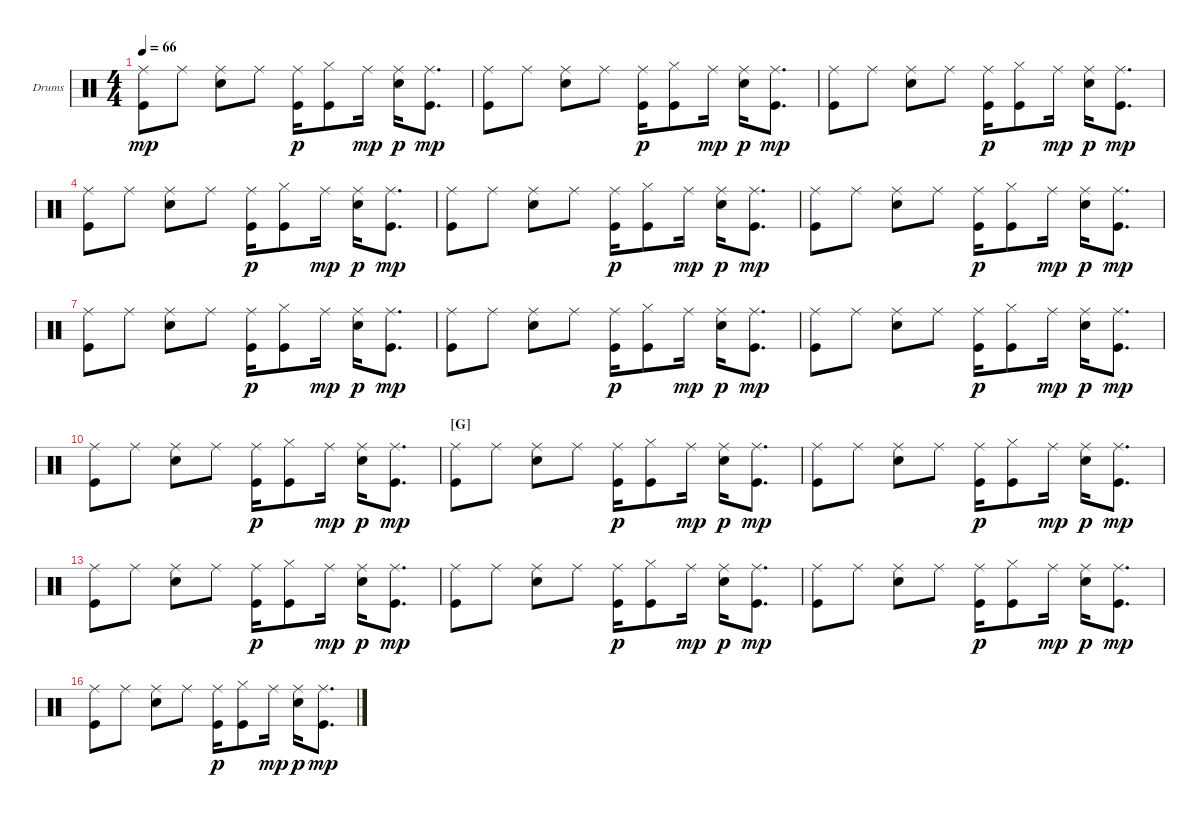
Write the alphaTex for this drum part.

\bracketExtendMode nobrackets
\firstSystemTrackNameOrientation horizontal
\otherSystemsTrackNameOrientation horizontal
\defaultBarNumberDisplay FirstOfSystem
\track ("Drumkit" "Drums") {instrument percussion}
\staff {score}
\articulation defaults
\ts (4 4)
\tempo 66
\clef neutral
\ks c
("Ride (middle)" "Kick (hit)").8{dy mp} "Ride (middle)".8 ("Snare (hit) 2" "Ride (middle)").8 "Ride (middle)".8 ("Ride (middle)" "Kick (hit)").16{dy p} ("Hi-Hat (closed)" "Kick (hit)").8 "Ride (middle)".16{dy mp} ("Ride (middle)" "Snare (hit) 2").16{dy p} ("Ride (middle)" "Kick (hit)").8{d dy mp} |
("Ride (middle)" "Kick (hit)").8 "Ride (middle)".8 ("Snare (hit) 2" "Ride (middle)").8 "Ride (middle)".8 ("Ride (middle)" "Kick (hit)").16{dy p} ("Hi-Hat (closed)" "Kick (hit)").8 "Ride (middle)".16{dy mp} ("Ride (middle)" "Snare (hit) 2").16{dy p} ("Ride (middle)" "Kick (hit)").8{d dy mp} |
("Ride (middle)" "Kick (hit)").8 "Ride (middle)".8 ("Snare (hit) 2" "Ride (middle)").8 "Ride (middle)".8 ("Ride (middle)" "Kick (hit)").16{dy p} ("Hi-Hat (closed)" "Kick (hit)").8 "Ride (middle)".16{dy mp} ("Ride (middle)" "Snare (hit) 2").16{dy p} ("Ride (middle)" "Kick (hit)").8{d dy mp} |
("Ride (middle)" "Kick (hit)").8 "Ride (middle)".8 ("Snare (hit) 2" "Ride (middle)").8 "Ride (middle)".8 ("Ride (middle)" "Kick (hit)").16{dy p} ("Hi-Hat (closed)" "Kick (hit)").8 "Ride (middle)".16{dy mp} ("Ride (middle)" "Snare (hit) 2").16{dy p} ("Ride (middle)" "Kick (hit)").8{d dy mp} |
("Ride (middle)" "Kick (hit)").8 "Ride (middle)".8 ("Snare (hit) 2" "Ride (middle)").8 "Ride (middle)".8 ("Ride (middle)" "Kick (hit)").16{dy p} ("Hi-Hat (closed)" "Kick (hit)").8 "Ride (middle)".16{dy mp} ("Ride (middle)" "Snare (hit) 2").16{dy p} ("Ride (middle)" "Kick (hit)").8{d dy mp} |
("Ride (middle)" "Kick (hit)").8 "Ride (middle)".8 ("Snare (hit) 2" "Ride (middle)").8 "Ride (middle)".8 ("Ride (middle)" "Kick (hit)").16{dy p} ("Hi-Hat (closed)" "Kick (hit)").8 "Ride (middle)".16{dy mp} ("Ride (middle)" "Snare (hit) 2").16{dy p} ("Ride (middle)" "Kick (hit)").8{d dy mp} |
("Ride (middle)" "Kick (hit)").8 "Ride (middle)".8 ("Snare (hit) 2" "Ride (middle)").8 "Ride (middle)".8 ("Ride (middle)" "Kick (hit)").16{dy p} ("Hi-Hat (closed)" "Kick (hit)").8 "Ride (middle)".16{dy mp} ("Ride (middle)" "Snare (hit) 2").16{dy p} ("Ride (middle)" "Kick (hit)").8{d dy mp} |
("Ride (middle)" "Kick (hit)").8 "Ride (middle)".8 ("Snare (hit) 2" "Ride (middle)").8 "Ride (middle)".8 ("Ride (middle)" "Kick (hit)").16{dy p} ("Hi-Hat (closed)" "Kick (hit)").8 "Ride (middle)".16{dy mp} ("Ride (middle)" "Snare (hit) 2").16{dy p} ("Ride (middle)" "Kick (hit)").8{d dy mp} |
("Ride (middle)" "Kick (hit)").8 "Ride (middle)".8 ("Snare (hit) 2" "Ride (middle)").8 "Ride (middle)".8 ("Ride (middle)" "Kick (hit)").16{dy p} ("Hi-Hat (closed)" "Kick (hit)").8 "Ride (middle)".16{dy mp} ("Ride (middle)" "Snare (hit) 2").16{dy p} ("Ride (middle)" "Kick (hit)").8{d dy mp} |
("Ride (middle)" "Kick (hit)").8 "Ride (middle)".8 ("Snare (hit) 2" "Ride (middle)").8 "Ride (middle)".8 ("Ride (middle)" "Kick (hit)").16{dy p} ("Hi-Hat (closed)" "Kick (hit)").8 "Ride (middle)".16{dy mp} ("Ride (middle)" "Snare (hit) 2").16{dy p} ("Ride (middle)" "Kick (hit)").8{d dy mp} |
\section ("G" "")
("Ride (middle)" "Kick (hit)").8 "Ride (middle)".8 ("Snare (hit) 2" "Ride (middle)").8 "Ride (middle)".8 ("Ride (middle)" "Kick (hit)").16{dy p} ("Hi-Hat (closed)" "Kick (hit)").8 "Ride (middle)".16{dy mp} ("Ride (middle)" "Snare (hit) 2").16{dy p} ("Ride (middle)" "Kick (hit)").8{d dy mp} |
("Ride (middle)" "Kick (hit)").8 "Ride (middle)".8 ("Snare (hit) 2" "Ride (middle)").8 "Ride (middle)".8 ("Ride (middle)" "Kick (hit)").16{dy p} ("Hi-Hat (closed)" "Kick (hit)").8 "Ride (middle)".16{dy mp} ("Ride (middle)" "Snare (hit) 2").16{dy p} ("Ride (middle)" "Kick (hit)").8{d dy mp} |
("Ride (middle)" "Kick (hit)").8 "Ride (middle)".8 ("Snare (hit) 2" "Ride (middle)").8 "Ride (middle)".8 ("Ride (middle)" "Kick (hit)").16{dy p} ("Hi-Hat (closed)" "Kick (hit)").8 "Ride (middle)".16{dy mp} ("Ride (middle)" "Snare (hit) 2").16{dy p} ("Ride (middle)" "Kick (hit)").8{d dy mp} |
("Ride (middle)" "Kick (hit)").8 "Ride (middle)".8 ("Snare (hit) 2" "Ride (middle)").8 "Ride (middle)".8 ("Ride (middle)" "Kick (hit)").16{dy p} ("Hi-Hat (closed)" "Kick (hit)").8 "Ride (middle)".16{dy mp} ("Ride (middle)" "Snare (hit) 2").16{dy p} ("Ride (middle)" "Kick (hit)").8{d dy mp} |
("Ride (middle)" "Kick (hit)").8 "Ride (middle)".8 ("Snare (hit) 2" "Ride (middle)").8 "Ride (middle)".8 ("Ride (middle)" "Kick (hit)").16{dy p} ("Hi-Hat (closed)" "Kick (hit)").8 "Ride (middle)".16{dy mp} ("Ride (middle)" "Snare (hit) 2").16{dy p} ("Ride (middle)" "Kick (hit)").8{d dy mp} |
("Ride (middle)" "Kick (hit)").8 "Ride (middle)".8 ("Snare (hit) 2" "Ride (middle)").8 "Ride (middle)".8 ("Ride (middle)" "Kick (hit)").16{dy p} ("Hi-Hat (closed)" "Kick (hit)").8 "Ride (middle)".16{dy mp} ("Ride (middle)" "Snare (hit) 2").16{dy p} ("Ride (middle)" "Kick (hit)").8{d dy mp}
